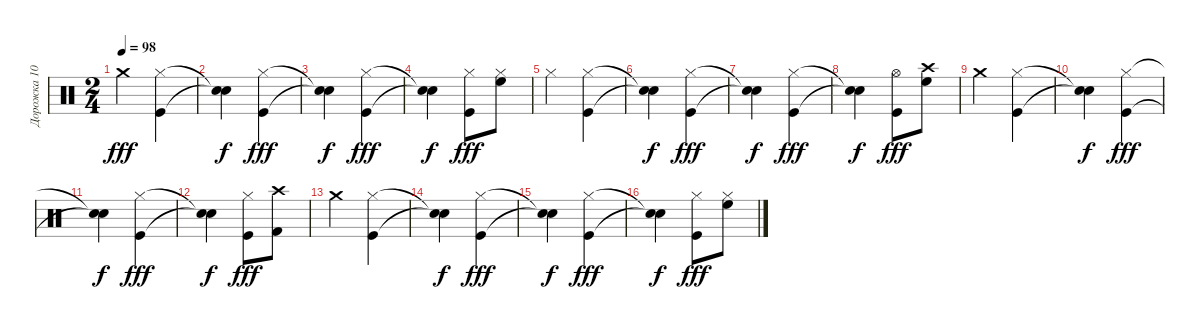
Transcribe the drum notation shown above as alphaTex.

\track ("Дорожка 10" "Дорожка 10") {instrument percussion}
\staff {score}
\articulation defaults
\ts (2 4)
\tempo 98
\clef neutral
\ks c "Crash medium (hit)".4{dy fff}
("Kick (hit)" "Hi-Hat (closed)").4 |
("Snare (hit)"{t} "Snare (hit)"{t}).4{dy f} ("Kick (hit)" "Hi-Hat (closed)").4{dy fff} |
("Snare (hit)"{t} "Snare (hit)"{t}).4{dy f} ("Kick (hit)" "Hi-Hat (closed)").4{dy fff} |
("Snare (hit)"{t} "Snare (hit)"{t}).4{dy f} ("Kick (hit)" "Hi-Hat (closed)").8{dy fff} ("High Floor Tom (hit)" "Hi-Hat (closed)").8 |
"Hi-Hat (closed)".4 ("Kick (hit)" "Hi-Hat (closed)").4 |
("Snare (hit)"{t} "Snare (hit)"{t}).4{dy f} ("Kick (hit)" "Hi-Hat (closed)").4{dy fff} |
("Snare (hit)"{t} "Snare (hit)"{t}).4{dy f} ("Kick (hit)" "Hi-Hat (closed)").4{dy fff} |
("Snare (hit)"{t} "Snare (hit)"{t}).4{dy f} ("Kick (hit)" "Hi-Hat (open)").8{dy fff} ("High Floor Tom (hit)" "Crash high (hit)").8 |
"Crash medium (hit)".4 ("Kick (hit)" "Hi-Hat (closed)").4 |
("Snare (hit)"{t} "Snare (hit)"{t}).4{dy f} ("Kick (hit)" "Hi-Hat (closed)").4{dy fff} |
("Snare (hit)"{t} "Snare (hit)"{t}).4{dy f} ("Kick (hit)" "Hi-Hat (closed)").4{dy fff} |
("Snare (hit)"{t} "Snare (hit)"{t}).4{dy f} ("Kick (hit)" "Hi-Hat (closed)").8{dy fff} ("Kick (hit) 2" "Crash high (hit)").8 |
"Crash medium (hit)".4 ("Kick (hit)" "Hi-Hat (closed)").4 |
("Snare (hit)"{t} "Snare (hit)"{t}).4{dy f} ("Kick (hit)" "Hi-Hat (closed)").4{dy fff} |
("Snare (hit)"{t} "Snare (hit)"{t}).4{dy f} ("Kick (hit)" "Hi-Hat (closed)").4{dy fff} |
("Snare (hit)"{t} "Snare (hit)"{t}).4{dy f} ("Kick (hit)" "Hi-Hat (closed)").8{dy fff} ("High Floor Tom (hit)" "Hi-Hat (closed)").8
